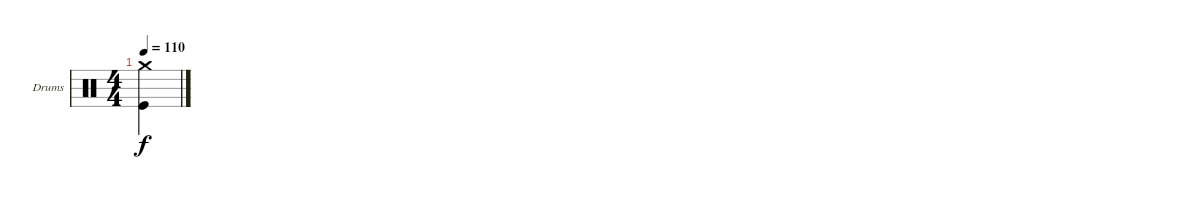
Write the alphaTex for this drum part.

\defaultSystemsLayout 4
\bracketExtendMode groupsimilarinstruments
\firstSystemTrackNameOrientation horizontal
\otherSystemsTrackNameOrientation horizontal
\track ("Drum" "Drums") {instrument percussion}
\staff {score}
\articulation defaults
\ts (4 4)
\tempo 110
\clef neutral
\ks c
("Crash medium (hit)" "Kick (hit)").4{dy f}
